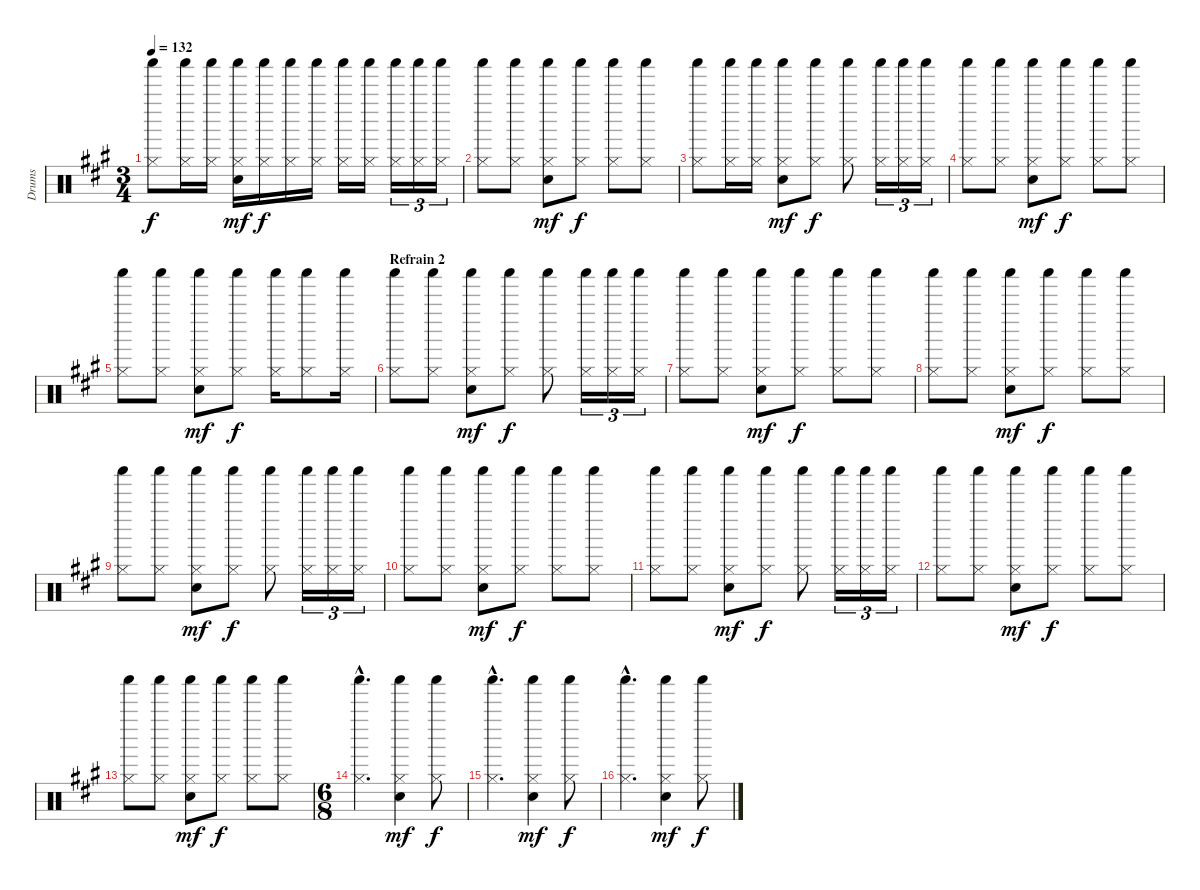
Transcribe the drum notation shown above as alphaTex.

\track ("Drums" "Drums") {instrument percussion}
\staff {score}
\articulation defaults
\ts (3 4)
\tempo 132
\clef neutral
\ks a
("Shaker (hit)" "Hi-Hat (closed)").8{dy f} ("Shaker (hit)" "Hi-Hat (closed)").16 ("Shaker (hit)" "Hi-Hat (closed)").16 ("Shaker (hit)" "Hi-Hat (closed)" "Electric Snare (hit)").16{dy mf} ("Shaker (hit)" "Hi-Hat (closed)").16{dy f} ("Shaker (hit)" "Hi-Hat (closed)").16 ("Shaker (hit)" "Hi-Hat (closed)").16 ("Shaker (hit)" "Hi-Hat (closed)").16 ("Shaker (hit)" "Hi-Hat (closed)").16 ("Shaker (hit)" "Hi-Hat (closed)").16{tu (3 2)} ("Shaker (hit)" "Hi-Hat (closed)").16{tu (3 2)} ("Shaker (hit)" "Hi-Hat (closed)").16{tu (3 2)} |
("Shaker (hit)" "Hi-Hat (closed)").8 ("Shaker (hit)" "Hi-Hat (closed)").8 ("Shaker (hit)" "Hi-Hat (closed)" "Electric Snare (hit)").8{dy mf} ("Shaker (hit)" "Hi-Hat (closed)").8{dy f} ("Shaker (hit)" "Hi-Hat (closed)").8 ("Shaker (hit)" "Hi-Hat (closed)").8 |
("Shaker (hit)" "Hi-Hat (closed)").8 ("Shaker (hit)" "Hi-Hat (closed)").16 ("Shaker (hit)" "Hi-Hat (closed)").16 ("Shaker (hit)" "Hi-Hat (closed)" "Electric Snare (hit)").8{dy mf} ("Shaker (hit)" "Hi-Hat (closed)").8{dy f} ("Shaker (hit)" "Hi-Hat (closed)").8 ("Shaker (hit)" "Hi-Hat (closed)").16{tu (3 2)} ("Shaker (hit)" "Hi-Hat (closed)").16{tu (3 2)} ("Shaker (hit)" "Hi-Hat (closed)").16{tu (3 2)} |
("Shaker (hit)" "Hi-Hat (closed)").8 ("Shaker (hit)" "Hi-Hat (closed)").8 ("Shaker (hit)" "Hi-Hat (closed)" "Electric Snare (hit)").8{dy mf} ("Shaker (hit)" "Hi-Hat (closed)").8{dy f} ("Shaker (hit)" "Hi-Hat (closed)").8 ("Shaker (hit)" "Hi-Hat (closed)").8 |
("Shaker (hit)" "Hi-Hat (closed)").8 ("Shaker (hit)" "Hi-Hat (closed)").8 ("Shaker (hit)" "Hi-Hat (closed)" "Electric Snare (hit)").8{dy mf} ("Shaker (hit)" "Hi-Hat (closed)").8{dy f} ("Shaker (hit)" "Hi-Hat (closed)").16 ("Shaker (hit)" "Hi-Hat (closed)").8 ("Shaker (hit)" "Hi-Hat (closed)").16 |
\section ("" "Refrain 2")
("Shaker (hit)" "Hi-Hat (closed)").8 ("Shaker (hit)" "Hi-Hat (closed)").8 ("Shaker (hit)" "Hi-Hat (closed)" "Electric Snare (hit)").8{dy mf} ("Shaker (hit)" "Hi-Hat (closed)").8{dy f} ("Shaker (hit)" "Hi-Hat (closed)").8 ("Shaker (hit)" "Hi-Hat (closed)").16{tu (3 2)} ("Shaker (hit)" "Hi-Hat (closed)").16{tu (3 2)} ("Shaker (hit)" "Hi-Hat (closed)").16{tu (3 2)} |
("Shaker (hit)" "Hi-Hat (closed)").8 ("Shaker (hit)" "Hi-Hat (closed)").8 ("Shaker (hit)" "Hi-Hat (closed)" "Electric Snare (hit)").8{dy mf} ("Shaker (hit)" "Hi-Hat (closed)").8{dy f} ("Shaker (hit)" "Hi-Hat (closed)").8 ("Shaker (hit)" "Hi-Hat (closed)").8 |
("Shaker (hit)" "Hi-Hat (closed)").8 ("Shaker (hit)" "Hi-Hat (closed)").8 ("Shaker (hit)" "Hi-Hat (closed)" "Electric Snare (hit)").8{dy mf} ("Shaker (hit)" "Hi-Hat (closed)").8{dy f} ("Shaker (hit)" "Hi-Hat (closed)").8 ("Shaker (hit)" "Hi-Hat (closed)").8 |
("Shaker (hit)" "Hi-Hat (closed)").8 ("Shaker (hit)" "Hi-Hat (closed)").8 ("Shaker (hit)" "Hi-Hat (closed)" "Electric Snare (hit)").8{dy mf} ("Shaker (hit)" "Hi-Hat (closed)").8{dy f} ("Shaker (hit)" "Hi-Hat (closed)").8 ("Shaker (hit)" "Hi-Hat (closed)").16{tu (3 2)} ("Shaker (hit)" "Hi-Hat (closed)").16{tu (3 2)} ("Shaker (hit)" "Hi-Hat (closed)").16{tu (3 2)} |
("Shaker (hit)" "Hi-Hat (closed)").8 ("Shaker (hit)" "Hi-Hat (closed)").8 ("Shaker (hit)" "Hi-Hat (closed)" "Electric Snare (hit)").8{dy mf} ("Shaker (hit)" "Hi-Hat (closed)").8{dy f} ("Shaker (hit)" "Hi-Hat (closed)").8 ("Shaker (hit)" "Hi-Hat (closed)").8 |
("Shaker (hit)" "Hi-Hat (closed)").8 ("Shaker (hit)" "Hi-Hat (closed)").8 ("Shaker (hit)" "Hi-Hat (closed)" "Electric Snare (hit)").8{dy mf} ("Shaker (hit)" "Hi-Hat (closed)").8{dy f} ("Shaker (hit)" "Hi-Hat (closed)").8 ("Shaker (hit)" "Hi-Hat (closed)").16{tu (3 2)} ("Shaker (hit)" "Hi-Hat (closed)").16{tu (3 2)} ("Shaker (hit)" "Hi-Hat (closed)").16{tu (3 2)} |
("Shaker (hit)" "Hi-Hat (closed)").8 ("Shaker (hit)" "Hi-Hat (closed)").8 ("Shaker (hit)" "Hi-Hat (closed)" "Electric Snare (hit)").8{dy mf} ("Shaker (hit)" "Hi-Hat (closed)").8{dy f} ("Shaker (hit)" "Hi-Hat (closed)").8 ("Shaker (hit)" "Hi-Hat (closed)").8 |
("Shaker (hit)" "Hi-Hat (closed)").8 ("Shaker (hit)" "Hi-Hat (closed)").8 ("Shaker (hit)" "Hi-Hat (closed)" "Electric Snare (hit)").8{dy mf} ("Shaker (hit)" "Hi-Hat (closed)").8{dy f} ("Shaker (hit)" "Hi-Hat (closed)").8 ("Shaker (hit)" "Hi-Hat (closed)").8 |
\ts (6 8)
("Shaker (hit)"{hac} "Hi-Hat (closed)"{hac}).4{d} ("Shaker (hit)" "Hi-Hat (closed)" "Electric Snare (hit)").4{dy mf} ("Shaker (hit)" "Hi-Hat (closed)").8{dy f} |
("Shaker (hit)"{hac} "Hi-Hat (closed)"{hac}).4{d} ("Shaker (hit)" "Hi-Hat (closed)" "Electric Snare (hit)").4{dy mf} ("Shaker (hit)" "Hi-Hat (closed)").8{dy f} |
("Shaker (hit)"{hac} "Hi-Hat (closed)"{hac}).4{d} ("Shaker (hit)" "Hi-Hat (closed)" "Electric Snare (hit)").4{dy mf} ("Shaker (hit)" "Hi-Hat (closed)").8{dy f}
